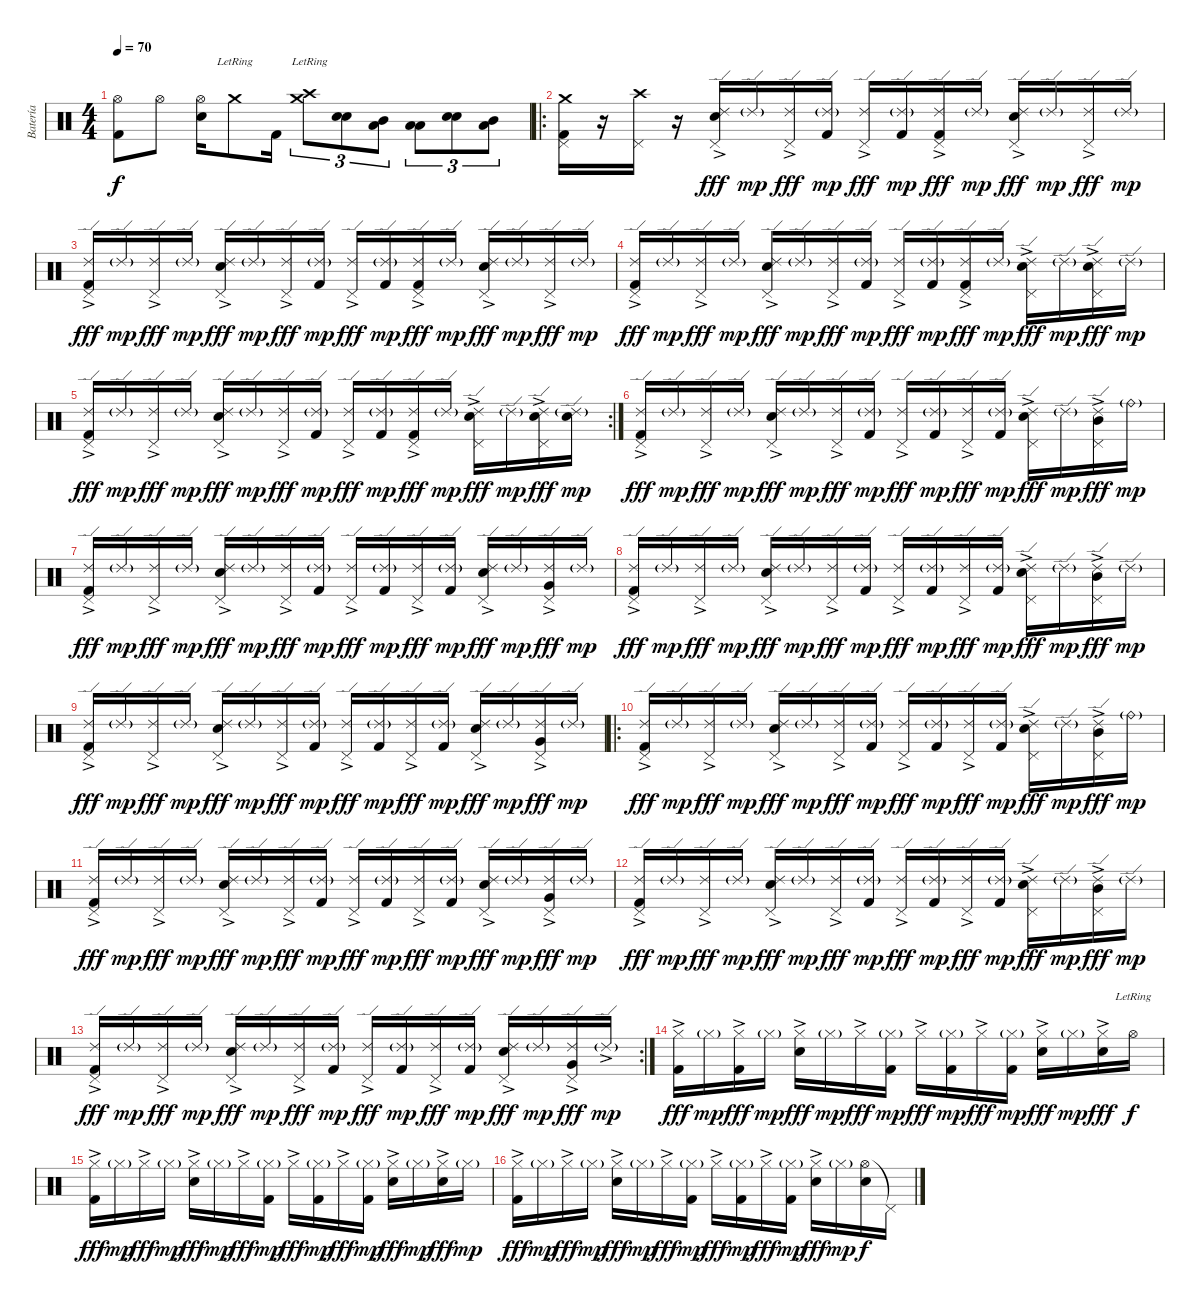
\track ("Batería" "Batería") {instrument percussion}
\staff {score}
\articulation defaults
\ts (4 4)
\tempo 70
\clef neutral
\ks c
("Hi-Hat (open)" "Kick (hit) 2").8{dy f} "Hi-Hat (open)".8 ("Hi-Hat (open)" "Electric Snare (hit)").16 "Crash medium (hit)"{lr}.8 "Kick (hit) 2".16 ("Crash medium (hit)"{lr} "Crash high (hit)"{lr}).8{tu (3 2)} ("Electric Snare (hit)" "Electric Snare (hit)").8{tu (3 2)} ("Mid Tom (hit)" "Low Tom (hit)").8{tu (3 2)} ("Low Tom (hit)" "Low Tom (hit)").8{tu (3 2)} ("Electric Snare (hit)" "Electric Snare (hit)").8{tu (3 2)} ("Mid Tom (hit)" "Low Tom (hit)").8{tu (3 2)} |
\ro
("Crash medium (hit)" "Pedal Hi-Hat (hit)" "Kick (hit) 2").16 r.16 ("Crash high (hit)" "Pedal Hi-Hat (hit)").16 r.16 ("Ride (edge) 2"{ac} "Pedal Hi-Hat (hit)" "Electric Snare (hit)").16{dy fff} "Ride (edge) 2"{g}.16{dy mp} ("Ride (edge) 2"{ac} "Pedal Hi-Hat (hit)").16{dy fff} ("Ride (edge) 2"{g} "Kick (hit) 2").16{dy mp} ("Ride (edge) 2"{ac} "Pedal Hi-Hat (hit)").16{dy fff} ("Ride (edge) 2"{g} "Kick (hit) 2").16{dy mp} ("Ride (edge) 2"{ac} "Pedal Hi-Hat (hit)" "Kick (hit) 2").16{dy fff} "Ride (edge) 2"{g}.16{dy mp} ("Ride (edge) 2"{ac} "Pedal Hi-Hat (hit)" "Electric Snare (hit)").16{dy fff} "Ride (edge) 2"{g}.16{dy mp} ("Ride (edge) 2"{ac} "Pedal Hi-Hat (hit)").16{dy fff} "Ride (edge) 2"{g}.16{dy mp} |
("Ride (edge) 2"{ac} "Pedal Hi-Hat (hit)" "Kick (hit) 2").16{dy fff} "Ride (edge) 2"{g}.16{dy mp} ("Ride (edge) 2"{ac} "Pedal Hi-Hat (hit)").16{dy fff} "Ride (edge) 2"{g}.16{dy mp} ("Ride (edge) 2"{ac} "Pedal Hi-Hat (hit)" "Electric Snare (hit)").16{dy fff} "Ride (edge) 2"{g}.16{dy mp} ("Ride (edge) 2"{ac} "Pedal Hi-Hat (hit)").16{dy fff} ("Ride (edge) 2"{g} "Kick (hit) 2").16{dy mp} ("Ride (edge) 2"{ac} "Pedal Hi-Hat (hit)").16{dy fff} ("Ride (edge) 2"{g} "Kick (hit) 2").16{dy mp} ("Ride (edge) 2"{ac} "Pedal Hi-Hat (hit)" "Kick (hit) 2").16{dy fff} "Ride (edge) 2"{g}.16{dy mp} ("Ride (edge) 2"{ac} "Pedal Hi-Hat (hit)" "Electric Snare (hit)").16{dy fff} "Ride (edge) 2"{g}.16{dy mp} ("Ride (edge) 2"{ac} "Pedal Hi-Hat (hit)").16{dy fff} "Ride (edge) 2"{g}.16{dy mp} |
("Ride (edge) 2"{ac} "Pedal Hi-Hat (hit)" "Kick (hit) 2").16{dy fff} "Ride (edge) 2"{g}.16{dy mp} ("Ride (edge) 2"{ac} "Pedal Hi-Hat (hit)").16{dy fff} "Ride (edge) 2"{g}.16{dy mp} ("Ride (edge) 2"{ac} "Pedal Hi-Hat (hit)" "Electric Snare (hit)").16{dy fff} "Ride (edge) 2"{g}.16{dy mp} ("Ride (edge) 2"{ac} "Pedal Hi-Hat (hit)").16{dy fff} ("Ride (edge) 2"{g} "Kick (hit) 2").16{dy mp} ("Ride (edge) 2"{ac} "Pedal Hi-Hat (hit)").16{dy fff} ("Ride (edge) 2"{g} "Kick (hit) 2").16{dy mp} ("Ride (edge) 2"{ac} "Pedal Hi-Hat (hit)" "Kick (hit) 2").16{dy fff} "Ride (edge) 2"{g}.16{dy mp} ("Ride (edge) 2"{ac} "Pedal Hi-Hat (hit)" "Electric Snare (hit)").16{dy fff} "Ride (edge) 2"{g}.16{dy mp} ("Ride (edge) 2"{ac} "Pedal Hi-Hat (hit)" "Electric Snare (hit)").16{dy fff} "Ride (edge) 2"{g}.16{dy mp} |
\rc 2
("Ride (edge) 2"{ac} "Pedal Hi-Hat (hit)" "Kick (hit) 2").16{dy fff} "Ride (edge) 2"{g}.16{dy mp} ("Ride (edge) 2"{ac} "Pedal Hi-Hat (hit)").16{dy fff} "Ride (edge) 2"{g}.16{dy mp} ("Ride (edge) 2"{ac} "Pedal Hi-Hat (hit)" "Electric Snare (hit)").16{dy fff} "Ride (edge) 2"{g}.16{dy mp} ("Ride (edge) 2"{ac} "Pedal Hi-Hat (hit)").16{dy fff} ("Ride (edge) 2"{g} "Kick (hit) 2").16{dy mp} ("Ride (edge) 2"{ac} "Pedal Hi-Hat (hit)").16{dy fff} ("Ride (edge) 2"{g} "Kick (hit) 2").16{dy mp} ("Ride (edge) 2"{ac} "Pedal Hi-Hat (hit)" "Kick (hit) 2").16{dy fff} "Ride (edge) 2"{g}.16{dy mp} ("Ride (edge) 2"{ac} "Pedal Hi-Hat (hit)" "Electric Snare (hit)").16{dy fff} "Ride (edge) 2"{g}.16{dy mp} ("Ride (edge) 2"{ac} "Pedal Hi-Hat (hit)" "Electric Snare (hit)").16{dy fff} ("Ride (edge) 2"{g} "Electric Snare (hit)").16{dy mp} |
("Ride (edge) 2"{ac} "Pedal Hi-Hat (hit)" "Kick (hit) 2").16{dy fff} "Ride (edge) 2"{g}.16{dy mp} ("Ride (edge) 2"{ac} "Pedal Hi-Hat (hit)").16{dy fff} "Ride (edge) 2"{g}.16{dy mp} ("Ride (edge) 2"{ac} "Pedal Hi-Hat (hit)" "Electric Snare (hit)").16{dy fff} "Ride (edge) 2"{g}.16{dy mp} ("Ride (edge) 2"{ac} "Pedal Hi-Hat (hit)").16{dy fff} ("Ride (edge) 2"{g} "Kick (hit) 2").16{dy mp} ("Ride (edge) 2"{ac} "Pedal Hi-Hat (hit)").16{dy fff} ("Ride (edge) 2"{g} "Kick (hit) 2").16{dy mp} ("Ride (edge) 2"{ac} "Pedal Hi-Hat (hit)").16{dy fff} ("Ride (edge) 2"{g} "Kick (hit) 2").16{dy mp} ("Ride (edge) 2"{ac} "Pedal Hi-Hat (hit)" "Electric Snare (hit)").16{dy fff} "Ride (edge) 2"{g}.16{dy mp} ("Ride (edge) 2"{ac} "Pedal Hi-Hat (hit)" "Mid Tom (hit)"{ac}).16{dy fff} "Ride (bell)"{g}.16{dy mp} |
("Ride (edge) 2"{ac} "Pedal Hi-Hat (hit)" "Kick (hit) 2").16{dy fff} "Ride (edge) 2"{g}.16{dy mp} ("Ride (edge) 2"{ac} "Pedal Hi-Hat (hit)").16{dy fff} "Ride (edge) 2"{g}.16{dy mp} ("Ride (edge) 2"{ac} "Pedal Hi-Hat (hit)" "Electric Snare (hit)").16{dy fff} "Ride (edge) 2"{g}.16{dy mp} ("Ride (edge) 2"{ac} "Pedal Hi-Hat (hit)").16{dy fff} ("Ride (edge) 2"{g} "Kick (hit) 2").16{dy mp} ("Ride (edge) 2"{ac} "Pedal Hi-Hat (hit)").16{dy fff} ("Ride (edge) 2"{g} "Kick (hit) 2").16{dy mp} ("Ride (edge) 2"{ac} "Pedal Hi-Hat (hit)").16{dy fff} ("Ride (edge) 2"{g} "Kick (hit) 2").16{dy mp} ("Ride (edge) 2"{ac} "Pedal Hi-Hat (hit)" "Electric Snare (hit)").16{dy fff} "Ride (edge) 2"{g}.16{dy mp} ("Ride (edge) 2"{ac} "Pedal Hi-Hat (hit)" "Very Low Tom (hit)"{ac}).16{dy fff} "Ride (edge) 2"{g}.16{dy mp} |
("Ride (edge) 2"{ac} "Pedal Hi-Hat (hit)" "Kick (hit) 2").16{dy fff} "Ride (edge) 2"{g}.16{dy mp} ("Ride (edge) 2"{ac} "Pedal Hi-Hat (hit)").16{dy fff} "Ride (edge) 2"{g}.16{dy mp} ("Ride (edge) 2"{ac} "Pedal Hi-Hat (hit)" "Electric Snare (hit)").16{dy fff} "Ride (edge) 2"{g}.16{dy mp} ("Ride (edge) 2"{ac} "Pedal Hi-Hat (hit)").16{dy fff} ("Ride (edge) 2"{g} "Kick (hit) 2").16{dy mp} ("Ride (edge) 2"{ac} "Pedal Hi-Hat (hit)").16{dy fff} ("Ride (edge) 2"{g} "Kick (hit) 2").16{dy mp} ("Ride (edge) 2"{ac} "Pedal Hi-Hat (hit)").16{dy fff} ("Ride (edge) 2"{g} "Kick (hit) 2").16{dy mp} ("Ride (edge) 2"{ac} "Pedal Hi-Hat (hit)" "Electric Snare (hit)").16{dy fff} "Ride (edge) 2"{g}.16{dy mp} ("Ride (edge) 2"{ac} "Pedal Hi-Hat (hit)" "Mid Tom (hit)"{ac}).16{dy fff} "Ride (edge) 2"{g}.16{dy mp} |
("Ride (edge) 2"{ac} "Pedal Hi-Hat (hit)" "Kick (hit) 2").16{dy fff} "Ride (edge) 2"{g}.16{dy mp} ("Ride (edge) 2"{ac} "Pedal Hi-Hat (hit)").16{dy fff} "Ride (edge) 2"{g}.16{dy mp} ("Ride (edge) 2"{ac} "Pedal Hi-Hat (hit)" "Electric Snare (hit)").16{dy fff} "Ride (edge) 2"{g}.16{dy mp} ("Ride (edge) 2"{ac} "Pedal Hi-Hat (hit)").16{dy fff} ("Ride (edge) 2"{g} "Kick (hit) 2").16{dy mp} ("Ride (edge) 2"{ac} "Pedal Hi-Hat (hit)").16{dy fff} ("Ride (edge) 2"{g} "Kick (hit) 2").16{dy mp} ("Ride (edge) 2"{ac} "Pedal Hi-Hat (hit)").16{dy fff} ("Ride (edge) 2"{g} "Kick (hit) 2").16{dy mp} ("Ride (edge) 2"{ac} "Pedal Hi-Hat (hit)" "Electric Snare (hit)").16{dy fff} "Ride (edge) 2"{g}.16{dy mp} ("Ride (edge) 2"{ac} "Pedal Hi-Hat (hit)" "Very Low Tom (hit)"{ac}).16{dy fff} "Ride (edge) 2"{g}.16{dy mp} |
\ro
("Ride (edge) 2"{ac} "Pedal Hi-Hat (hit)" "Kick (hit) 2").16{dy fff} "Ride (edge) 2"{g}.16{dy mp} ("Ride (edge) 2"{ac} "Pedal Hi-Hat (hit)").16{dy fff} "Ride (edge) 2"{g}.16{dy mp} ("Ride (edge) 2"{ac} "Pedal Hi-Hat (hit)" "Electric Snare (hit)").16{dy fff} "Ride (edge) 2"{g}.16{dy mp} ("Ride (edge) 2"{ac} "Pedal Hi-Hat (hit)").16{dy fff} ("Ride (edge) 2"{g} "Kick (hit) 2").16{dy mp} ("Ride (edge) 2"{ac} "Pedal Hi-Hat (hit)").16{dy fff} ("Ride (edge) 2"{g} "Kick (hit) 2").16{dy mp} ("Ride (edge) 2"{ac} "Pedal Hi-Hat (hit)").16{dy fff} ("Ride (edge) 2"{g} "Kick (hit) 2").16{dy mp} ("Ride (edge) 2"{ac} "Pedal Hi-Hat (hit)" "Electric Snare (hit)").16{dy fff} "Ride (edge) 2"{g}.16{dy mp} ("Ride (edge) 2"{ac} "Pedal Hi-Hat (hit)" "Mid Tom (hit)"{ac}).16{dy fff} "Ride (bell)"{g}.16{dy mp} |
("Ride (edge) 2"{ac} "Pedal Hi-Hat (hit)" "Kick (hit) 2").16{dy fff} "Ride (edge) 2"{g}.16{dy mp} ("Ride (edge) 2"{ac} "Pedal Hi-Hat (hit)").16{dy fff} "Ride (edge) 2"{g}.16{dy mp} ("Ride (edge) 2"{ac} "Pedal Hi-Hat (hit)" "Electric Snare (hit)").16{dy fff} "Ride (edge) 2"{g}.16{dy mp} ("Ride (edge) 2"{ac} "Pedal Hi-Hat (hit)").16{dy fff} ("Ride (edge) 2"{g} "Kick (hit) 2").16{dy mp} ("Ride (edge) 2"{ac} "Pedal Hi-Hat (hit)").16{dy fff} ("Ride (edge) 2"{g} "Kick (hit) 2").16{dy mp} ("Ride (edge) 2"{ac} "Pedal Hi-Hat (hit)").16{dy fff} ("Ride (edge) 2"{g} "Kick (hit) 2").16{dy mp} ("Ride (edge) 2"{ac} "Pedal Hi-Hat (hit)" "Electric Snare (hit)").16{dy fff} "Ride (edge) 2"{g}.16{dy mp} ("Ride (edge) 2"{ac} "Pedal Hi-Hat (hit)" "Very Low Tom (hit)"{ac}).16{dy fff} "Ride (edge) 2"{g}.16{dy mp} |
("Ride (edge) 2"{ac} "Pedal Hi-Hat (hit)" "Kick (hit) 2").16{dy fff} "Ride (edge) 2"{g}.16{dy mp} ("Ride (edge) 2"{ac} "Pedal Hi-Hat (hit)").16{dy fff} "Ride (edge) 2"{g}.16{dy mp} ("Ride (edge) 2"{ac} "Pedal Hi-Hat (hit)" "Electric Snare (hit)").16{dy fff} "Ride (edge) 2"{g}.16{dy mp} ("Ride (edge) 2"{ac} "Pedal Hi-Hat (hit)").16{dy fff} ("Ride (edge) 2"{g} "Kick (hit) 2").16{dy mp} ("Ride (edge) 2"{ac} "Pedal Hi-Hat (hit)").16{dy fff} ("Ride (edge) 2"{g} "Kick (hit) 2").16{dy mp} ("Ride (edge) 2"{ac} "Pedal Hi-Hat (hit)").16{dy fff} ("Ride (edge) 2"{g} "Kick (hit) 2").16{dy mp} ("Ride (edge) 2"{ac} "Pedal Hi-Hat (hit)" "Electric Snare (hit)").16{dy fff} "Ride (edge) 2"{g}.16{dy mp} ("Ride (edge) 2"{ac} "Pedal Hi-Hat (hit)" "Mid Tom (hit)"{ac}).16{dy fff} "Ride (edge) 2"{g}.16{dy mp} |
\rc 2
("Ride (edge) 2"{ac} "Pedal Hi-Hat (hit)" "Kick (hit) 2").16{dy fff} "Ride (edge) 2"{g}.16{dy mp} ("Ride (edge) 2"{ac} "Pedal Hi-Hat (hit)").16{dy fff} "Ride (edge) 2"{g}.16{dy mp} ("Ride (edge) 2"{ac} "Pedal Hi-Hat (hit)" "Electric Snare (hit)").16{dy fff} "Ride (edge) 2"{g}.16{dy mp} ("Ride (edge) 2"{ac} "Pedal Hi-Hat (hit)").16{dy fff} ("Ride (edge) 2"{g} "Kick (hit) 2").16{dy mp} ("Ride (edge) 2"{ac} "Pedal Hi-Hat (hit)").16{dy fff} ("Ride (edge) 2"{g} "Kick (hit) 2").16{dy mp} ("Ride (edge) 2"{ac} "Pedal Hi-Hat (hit)").16{dy fff} ("Ride (edge) 2"{g} "Kick (hit) 2").16{dy mp} ("Ride (edge) 2"{ac} "Pedal Hi-Hat (hit)" "Electric Snare (hit)").16{dy fff} "Ride (edge) 2"{g}.16{dy mp} ("Ride (edge) 2"{ac} "Pedal Hi-Hat (hit)" "Very Low Tom (hit)"{ac}).16{dy fff} "Ride (edge) 2"{g ac}.16{dy mp} |
("Hi-Hat (closed)"{ac} "Kick (hit) 2").16{dy fff} "Hi-Hat (closed)"{g}.16{dy mp} ("Hi-Hat (closed)"{ac} "Kick (hit) 2").16{dy fff} "Hi-Hat (closed)"{g}.16{dy mp} ("Hi-Hat (closed)"{ac} "Electric Snare (hit)").16{dy fff} "Hi-Hat (closed)"{g}.16{dy mp} "Hi-Hat (closed)"{ac}.16{dy fff} ("Hi-Hat (closed)"{g} "Kick (hit) 2").16{dy mp} "Hi-Hat (closed)"{ac}.16{dy fff} ("Hi-Hat (closed)"{g} "Kick (hit) 2").16{dy mp} "Hi-Hat (closed)"{ac}.16{dy fff} ("Hi-Hat (closed)"{g} "Kick (hit) 2").16{dy mp} ("Hi-Hat (closed)"{ac} "Electric Snare (hit)").16{dy fff} "Hi-Hat (closed)"{g}.16{dy mp} ("Hi-Hat (closed)"{ac} "Electric Snare (hit)").16{dy fff} "Hi-Hat (open)"{lr}.16{dy f} |
("Hi-Hat (closed)"{ac} "Kick (hit) 2").16{dy fff} "Hi-Hat (closed)"{g}.16{dy mp} "Hi-Hat (closed)"{ac}.16{dy fff} "Hi-Hat (closed)"{g}.16{dy mp} ("Hi-Hat (closed)"{ac} "Electric Snare (hit)").16{dy fff} "Hi-Hat (closed)"{g}.16{dy mp} "Hi-Hat (closed)"{ac}.16{dy fff} ("Hi-Hat (closed)"{g} "Kick (hit) 2").16{dy mp} "Hi-Hat (closed)"{ac}.16{dy fff} ("Hi-Hat (closed)"{g} "Kick (hit) 2").16{dy mp} "Hi-Hat (closed)"{ac}.16{dy fff} ("Hi-Hat (closed)"{g} "Kick (hit) 2").16{dy mp} ("Hi-Hat (closed)"{ac} "Electric Snare (hit)").16{dy fff} "Hi-Hat (closed)"{g}.16{dy mp} ("Hi-Hat (closed)"{ac} "Electric Snare (hit)").16{dy fff} "Hi-Hat (closed)"{g}.16{dy mp} |
("Hi-Hat (closed)"{ac} "Kick (hit) 2").16{dy fff} "Hi-Hat (closed)"{g}.16{dy mp} "Hi-Hat (closed)"{ac}.16{dy fff} "Hi-Hat (closed)"{g}.16{dy mp} ("Hi-Hat (closed)"{ac} "Electric Snare (hit)").16{dy fff} "Hi-Hat (closed)"{g}.16{dy mp} "Hi-Hat (closed)"{ac}.16{dy fff} ("Hi-Hat (closed)"{g} "Kick (hit) 2").16{dy mp} "Hi-Hat (closed)"{ac}.16{dy fff} ("Hi-Hat (closed)"{g} "Kick (hit) 2").16{dy mp} "Hi-Hat (closed)"{ac}.16{dy fff} ("Hi-Hat (closed)"{g} "Kick (hit) 2").16{dy mp} ("Hi-Hat (closed)"{ac} "Electric Snare (hit)").16{dy fff} "Hi-Hat (closed)"{g}.16{dy mp} ("Hi-Hat (open)" "Electric Snare (hit)").16{dy f} "Pedal Hi-Hat (hit)"{t}.16
